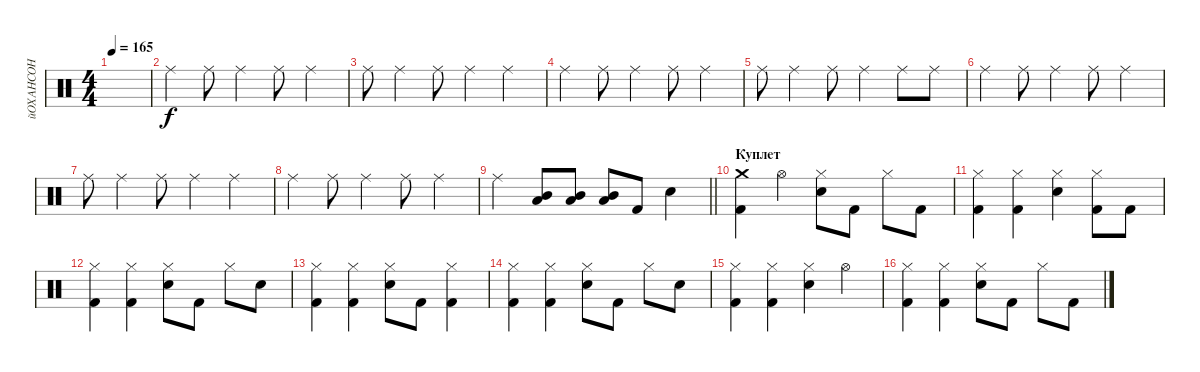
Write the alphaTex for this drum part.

\track ("йОХАНСОН" "йОХАНСОН") {instrument percussion}
\staff {score}
\articulation defaults
\ts (4 4)
\tempo 165
\clef neutral
\ks c
|
"Ride (middle)".4 "Ride (middle)".8 "Ride (middle)".4 "Ride (middle)".8 "Ride (middle)".4 |
"Ride (middle)".8 "Ride (middle)".4 "Ride (middle)".8 "Ride (middle)".4 "Ride (middle)".4 |
"Ride (middle)".4 "Ride (middle)".8 "Ride (middle)".4 "Ride (middle)".8 "Ride (middle)".4 |
"Ride (middle)".8 "Ride (middle)".4 "Ride (middle)".8 "Ride (middle)".4 "Ride (middle)".8 "Ride (middle)".8 |
"Ride (middle)".4 "Ride (middle)".8 "Ride (middle)".4 "Ride (middle)".8 "Ride (middle)".4 |
"Ride (middle)".8 "Ride (middle)".4 "Ride (middle)".8 "Ride (middle)".4 "Ride (middle)".4 |
"Ride (middle)".4 "Ride (middle)".8 "Ride (middle)".4 "Ride (middle)".8 "Ride (middle)".4 |
\barLineRight lightlight "Ride (middle)".4
("Mid Tom (hit)" "Low Tom (hit)").8 ("Mid Tom (hit)" "Low Tom (hit)").8 ("Mid Tom (hit)" "Low Tom (hit)").8 "Kick (hit) 2".8 "Snare (hit) 2".4 |
\section ("" "Куплет")
("Crash medium (hit)" "Kick (hit) 2").4 "Hi-Hat (open)".4 ("Hi-Hat (closed)" "Snare (hit) 2").8 "Kick (hit) 2".8 "Hi-Hat (closed)".8 "Kick (hit) 2".8 |
("Hi-Hat (closed)" "Kick (hit) 2").4 ("Hi-Hat (closed)" "Kick (hit) 2").4 ("Hi-Hat (closed)" "Snare (hit) 2").4 ("Hi-Hat (closed)" "Kick (hit) 2").8 "Kick (hit) 2".8 |
("Hi-Hat (closed)" "Kick (hit) 2").4 ("Hi-Hat (closed)" "Kick (hit) 2").4 ("Hi-Hat (closed)" "Snare (hit) 2").8 "Kick (hit) 2".8 "Hi-Hat (closed)".8 "Snare (hit) 2".8 |
("Hi-Hat (closed)" "Kick (hit) 2").4 ("Hi-Hat (closed)" "Kick (hit) 2").4 ("Hi-Hat (closed)" "Snare (hit) 2").8 "Kick (hit) 2".8 ("Hi-Hat (closed)" "Kick (hit) 2").4 |
("Hi-Hat (closed)" "Kick (hit) 2").4 ("Hi-Hat (closed)" "Kick (hit) 2").4 ("Hi-Hat (closed)" "Snare (hit) 2").8 "Kick (hit) 2".8 "Hi-Hat (closed)".8 "Snare (hit) 2".8 |
("Hi-Hat (closed)" "Kick (hit) 2").4 ("Hi-Hat (closed)" "Kick (hit) 2").4 ("Hi-Hat (closed)" "Snare (hit) 2").4 "Hi-Hat (open)".4 |
("Hi-Hat (closed)" "Kick (hit) 2").4 ("Hi-Hat (closed)" "Kick (hit) 2").4 ("Hi-Hat (closed)" "Snare (hit) 2").8 "Kick (hit) 2".8 "Hi-Hat (closed)".8 "Kick (hit) 2".8
